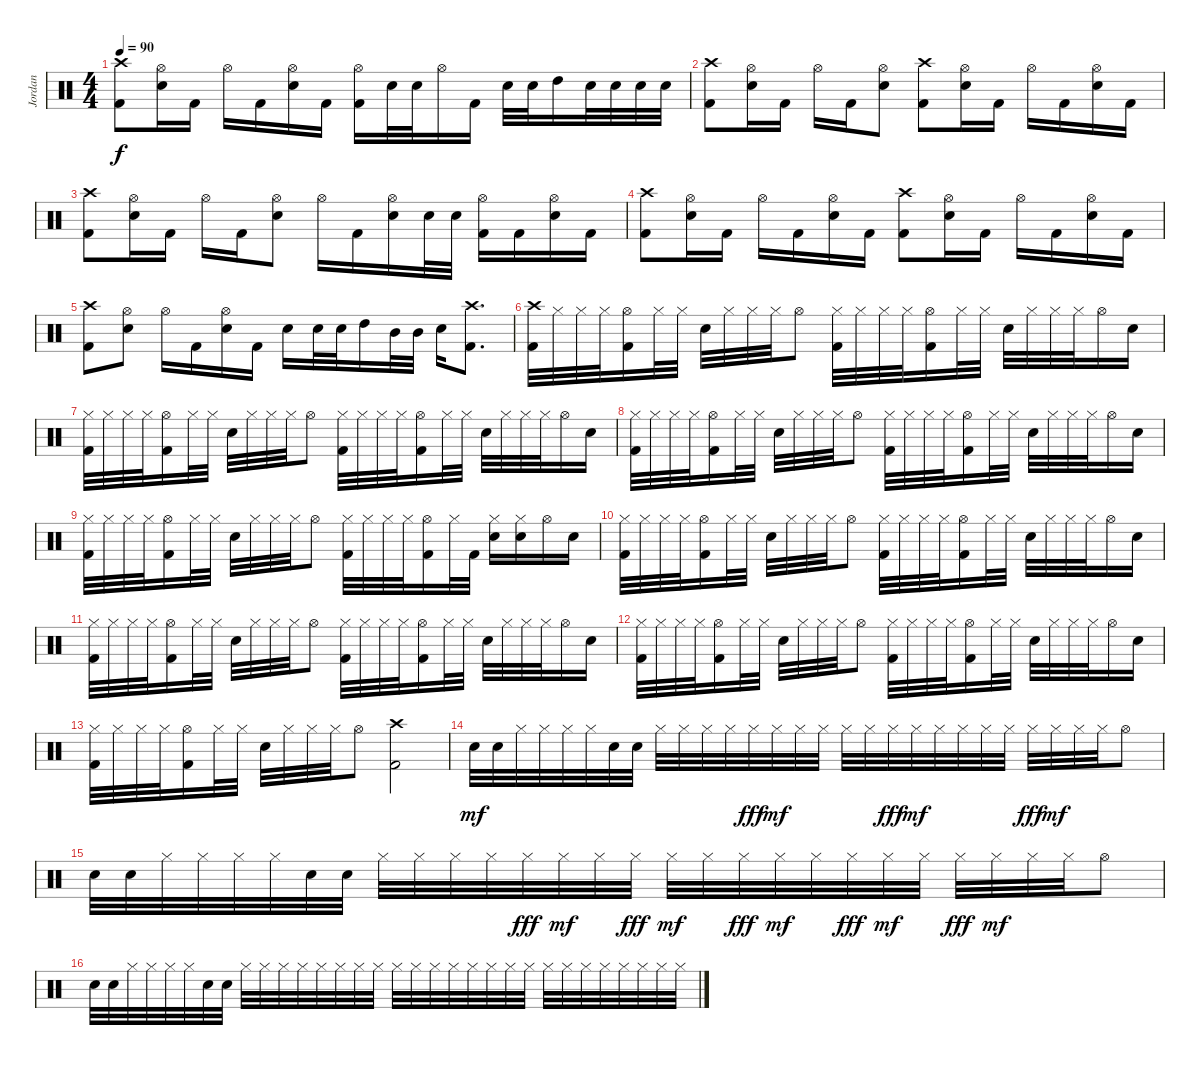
\track ("Jordan" "Jordan") {instrument percussion}
\staff {score}
\articulation defaults
\ts (4 4)
\tempo 90
\clef neutral
\ks c
("Crash high (hit)" "Kick (hit) 2").8{dy f} ("Hi-Hat (open)" "Snare (hit) 2").16 "Kick (hit) 2".16 "Hi-Hat (open)".16 "Kick (hit) 2".16 ("Hi-Hat (open)" "Snare (hit) 2").16 "Kick (hit) 2".16 ("Hi-Hat (open)" "Kick (hit) 2").16 "Snare (hit) 2".32 "Snare (hit) 2".32 "Hi-Hat (open)".16 "Kick (hit) 2".16 "Snare (hit) 2".32 "Snare (hit) 2".32 "High Tom (hit)".16 "Snare (hit) 2".32 "Snare (hit) 2".32 "Snare (hit) 2".32 "Snare (hit) 2".32 |
("Crash high (hit)" "Kick (hit) 2").8 ("Hi-Hat (open)" "Snare (hit) 2").16 "Kick (hit) 2".16 "Hi-Hat (open)".16 "Kick (hit) 2".16 ("Hi-Hat (open)" "Snare (hit) 2").8 ("Crash high (hit)" "Kick (hit) 2").8 ("Hi-Hat (open)" "Snare (hit) 2").16 "Kick (hit) 2".16 "Hi-Hat (open)".16 "Kick (hit) 2".16 ("Hi-Hat (open)" "Snare (hit) 2").16 "Kick (hit) 2".16 |
("Crash high (hit)" "Kick (hit) 2").8 ("Hi-Hat (open)" "Snare (hit) 2").16 "Kick (hit) 2".16 "Hi-Hat (open)".16 "Kick (hit) 2".16 ("Hi-Hat (open)" "Snare (hit) 2").8 "Hi-Hat (open)".16 "Kick (hit) 2".16 ("Hi-Hat (open)" "Snare (hit) 2").16 "Snare (hit) 2".32 "Snare (hit) 2".32 ("Hi-Hat (open)" "Kick (hit) 2").16 "Kick (hit) 2".16 ("Hi-Hat (open)" "Snare (hit) 2").16 "Kick (hit) 2".16 |
("Crash high (hit)" "Kick (hit) 2").8 ("Hi-Hat (open)" "Snare (hit) 2").16 "Kick (hit) 2".16 "Hi-Hat (open)".16 "Kick (hit) 2".16 ("Hi-Hat (open)" "Snare (hit) 2").16 "Kick (hit) 2".16 ("Crash high (hit)" "Kick (hit) 2").8 ("Hi-Hat (open)" "Snare (hit) 2").16 "Kick (hit) 2".16 "Hi-Hat (open)".16 "Kick (hit) 2".16 ("Hi-Hat (open)" "Snare (hit) 2").16 "Kick (hit) 2".16 |
("Crash high (hit)" "Kick (hit) 2").8 ("Hi-Hat (open)" "Snare (hit) 2").8 "Hi-Hat (open)".16 "Kick (hit) 2".16 ("Hi-Hat (open)" "Snare (hit) 2").16 "Kick (hit) 2".16 "Snare (hit) 2".16 "Snare (hit) 2".32 "Snare (hit) 2".32 "High Tom (hit)".16 "Mid Tom (hit)".32 "Mid Tom (hit)".32 "Snare (hit) 2".16 ("Crash high (hit)" "Kick (hit) 2").8{d} |
("Crash high (hit)" "Kick (hit) 2").32 "Hi-Hat (closed)".32 "Hi-Hat (closed)".32 "Hi-Hat (closed)".32 ("Hi-Hat (open)" "Kick (hit) 2").16 "Hi-Hat (closed)".32 "Hi-Hat (closed)".32 "Snare (hit) 2".32 "Hi-Hat (closed)".32 "Hi-Hat (closed)".32 "Hi-Hat (closed)".32 "Hi-Hat (open)".8 ("Hi-Hat (closed)" "Kick (hit) 2").32 "Hi-Hat (closed)".32 "Hi-Hat (closed)".32 "Hi-Hat (closed)".32 ("Hi-Hat (open)" "Kick (hit) 2").16 "Hi-Hat (closed)".32 "Hi-Hat (closed)".32 "Snare (hit) 2".32 "Hi-Hat (closed)".32 "Hi-Hat (closed)".32 "Hi-Hat (closed)".32 "Hi-Hat (open)".16 "Snare (hit) 2".16 |
("Hi-Hat (closed)" "Kick (hit) 2").32 "Hi-Hat (closed)".32 "Hi-Hat (closed)".32 "Hi-Hat (closed)".32 ("Hi-Hat (open)" "Kick (hit) 2").16 "Hi-Hat (closed)".32 "Hi-Hat (closed)".32 "Snare (hit) 2".32 "Hi-Hat (closed)".32 "Hi-Hat (closed)".32 "Hi-Hat (closed)".32 "Hi-Hat (open)".8 ("Hi-Hat (closed)" "Kick (hit) 2").32 "Hi-Hat (closed)".32 "Hi-Hat (closed)".32 "Hi-Hat (closed)".32 ("Hi-Hat (open)" "Kick (hit) 2").16 "Hi-Hat (closed)".32 "Hi-Hat (closed)".32 "Snare (hit) 2".32 "Hi-Hat (closed)".32 "Hi-Hat (closed)".32 "Hi-Hat (closed)".32 "Hi-Hat (open)".16 "Snare (hit) 2".16 |
("Hi-Hat (closed)" "Kick (hit) 2").32 "Hi-Hat (closed)".32 "Hi-Hat (closed)".32 "Hi-Hat (closed)".32 ("Hi-Hat (open)" "Kick (hit) 2").16 "Hi-Hat (closed)".32 "Hi-Hat (closed)".32 "Snare (hit) 2".32 "Hi-Hat (closed)".32 "Hi-Hat (closed)".32 "Hi-Hat (closed)".32 "Hi-Hat (open)".8 ("Hi-Hat (closed)" "Kick (hit) 2").32 "Hi-Hat (closed)".32 "Hi-Hat (closed)".32 "Hi-Hat (closed)".32 ("Hi-Hat (open)" "Kick (hit) 2").16 "Hi-Hat (closed)".32 "Hi-Hat (closed)".32 "Snare (hit) 2".32 "Hi-Hat (closed)".32 "Hi-Hat (closed)".32 "Hi-Hat (closed)".32 "Hi-Hat (open)".16 "Snare (hit) 2".16 |
("Hi-Hat (closed)" "Kick (hit) 2").32 "Hi-Hat (closed)".32 "Hi-Hat (closed)".32 "Hi-Hat (closed)".32 ("Hi-Hat (open)" "Kick (hit) 2").16 "Hi-Hat (closed)".32 "Hi-Hat (closed)".32 "Snare (hit) 2".32 "Hi-Hat (closed)".32 "Hi-Hat (closed)".32 "Hi-Hat (closed)".32 "Hi-Hat (open)".8 ("Hi-Hat (closed)" "Kick (hit) 2").32 "Hi-Hat (closed)".32 "Hi-Hat (closed)".32 "Hi-Hat (closed)".32 ("Hi-Hat (open)" "Kick (hit) 2").16 "Hi-Hat (closed)".32 "Kick (hit) 2".32 ("Hi-Hat (closed)" "Snare (hit) 2").16 ("Hi-Hat (closed)" "Snare (hit) 2").16 "Hi-Hat (open)".16 "Snare (hit) 2".16 |
("Hi-Hat (closed)" "Kick (hit) 2").32 "Hi-Hat (closed)".32 "Hi-Hat (closed)".32 "Hi-Hat (closed)".32 ("Hi-Hat (open)" "Kick (hit) 2").16 "Hi-Hat (closed)".32 "Hi-Hat (closed)".32 "Snare (hit) 2".32 "Hi-Hat (closed)".32 "Hi-Hat (closed)".32 "Hi-Hat (closed)".32 "Hi-Hat (open)".8 ("Hi-Hat (closed)" "Kick (hit) 2").32 "Hi-Hat (closed)".32 "Hi-Hat (closed)".32 "Hi-Hat (closed)".32 ("Hi-Hat (open)" "Kick (hit) 2").16 "Hi-Hat (closed)".32 "Hi-Hat (closed)".32 "Snare (hit) 2".32 "Hi-Hat (closed)".32 "Hi-Hat (closed)".32 "Hi-Hat (closed)".32 "Hi-Hat (open)".16 "Snare (hit) 2".16 |
("Hi-Hat (closed)" "Kick (hit) 2").32 "Hi-Hat (closed)".32 "Hi-Hat (closed)".32 "Hi-Hat (closed)".32 ("Hi-Hat (open)" "Kick (hit) 2").16 "Hi-Hat (closed)".32 "Hi-Hat (closed)".32 "Snare (hit) 2".32 "Hi-Hat (closed)".32 "Hi-Hat (closed)".32 "Hi-Hat (closed)".32 "Hi-Hat (open)".8 ("Hi-Hat (closed)" "Kick (hit) 2").32 "Hi-Hat (closed)".32 "Hi-Hat (closed)".32 "Hi-Hat (closed)".32 ("Hi-Hat (open)" "Kick (hit) 2").16 "Hi-Hat (closed)".32 "Hi-Hat (closed)".32 "Snare (hit) 2".32 "Hi-Hat (closed)".32 "Hi-Hat (closed)".32 "Hi-Hat (closed)".32 "Hi-Hat (open)".16 "Snare (hit) 2".16 |
("Hi-Hat (closed)" "Kick (hit) 2").32 "Hi-Hat (closed)".32 "Hi-Hat (closed)".32 "Hi-Hat (closed)".32 ("Hi-Hat (open)" "Kick (hit) 2").16 "Hi-Hat (closed)".32 "Hi-Hat (closed)".32 "Snare (hit) 2".32 "Hi-Hat (closed)".32 "Hi-Hat (closed)".32 "Hi-Hat (closed)".32 "Hi-Hat (open)".8 ("Hi-Hat (closed)" "Kick (hit) 2").32 "Hi-Hat (closed)".32 "Hi-Hat (closed)".32 "Hi-Hat (closed)".32 ("Hi-Hat (open)" "Kick (hit) 2").16 "Hi-Hat (closed)".32 "Hi-Hat (closed)".32 "Snare (hit) 2".32 "Hi-Hat (closed)".32 "Hi-Hat (closed)".32 "Hi-Hat (closed)".32 "Hi-Hat (open)".16 "Snare (hit) 2".16 |
("Hi-Hat (closed)" "Kick (hit) 2").32 "Hi-Hat (closed)".32 "Hi-Hat (closed)".32 "Hi-Hat (closed)".32 ("Hi-Hat (open)" "Kick (hit) 2").16 "Hi-Hat (closed)".32 "Hi-Hat (closed)".32 "Snare (hit) 2".32 "Hi-Hat (closed)".32 "Hi-Hat (closed)".32 "Hi-Hat (closed)".32 "Hi-Hat (open)".8 ("Crash high (hit)" "Kick (hit) 2").2 |
"Snare (hit) 2".32{dy mf} "Snare (hit) 2".32 "Hi-Hat (closed)".32 "Hi-Hat (closed)".32 "Hi-Hat (closed)".32 "Hi-Hat (closed)".32 "Snare (hit) 2".32 "Snare (hit) 2".32 "Hi-Hat (closed)".32 "Hi-Hat (closed)".32 "Hi-Hat (closed)".32 "Hi-Hat (closed)".32 "Hi-Hat (closed)".32{dy fff} "Hi-Hat (closed)".32{dy mf} "Hi-Hat (closed)".32 "Hi-Hat (closed)".32 "Hi-Hat (closed)".32 "Hi-Hat (closed)".32 "Hi-Hat (closed)".32{dy fff} "Hi-Hat (closed)".32{dy mf} "Hi-Hat (closed)".32 "Hi-Hat (closed)".32 "Hi-Hat (closed)".32 "Hi-Hat (closed)".32 "Hi-Hat (closed)".32{dy fff} "Hi-Hat (closed)".32{dy mf} "Hi-Hat (closed)".32 "Hi-Hat (closed)".32 "Hi-Hat (open)".8 |
"Snare (hit) 2".32 "Snare (hit) 2".32 "Hi-Hat (closed)".32 "Hi-Hat (closed)".32 "Hi-Hat (closed)".32 "Hi-Hat (closed)".32 "Snare (hit) 2".32 "Snare (hit) 2".32 "Hi-Hat (closed)".32 "Hi-Hat (closed)".32 "Hi-Hat (closed)".32 "Hi-Hat (closed)".32 "Hi-Hat (closed)".32{dy fff} "Hi-Hat (closed)".32{dy mf} "Hi-Hat (closed)".32 "Hi-Hat (closed)".32{dy fff} "Hi-Hat (closed)".32{dy mf} "Hi-Hat (closed)".32 "Hi-Hat (closed)".32{dy fff} "Hi-Hat (closed)".32{dy mf} "Hi-Hat (closed)".32 "Hi-Hat (closed)".32{dy fff} "Hi-Hat (closed)".32{dy mf} "Hi-Hat (closed)".32 "Hi-Hat (closed)".32{dy fff} "Hi-Hat (closed)".32{dy mf} "Hi-Hat (closed)".32 "Hi-Hat (closed)".32 "Hi-Hat (open)".8 |
"Snare (hit) 2".32 "Snare (hit) 2".32 "Hi-Hat (closed)".32 "Hi-Hat (closed)".32 "Hi-Hat (closed)".32 "Hi-Hat (closed)".32 "Snare (hit) 2".32 "Snare (hit) 2".32 "Hi-Hat (closed)".32 "Hi-Hat (closed)".32 "Hi-Hat (closed)".32 "Hi-Hat (closed)".32 "Hi-Hat (closed)".32 "Hi-Hat (closed)".32 "Hi-Hat (closed)".32 "Hi-Hat (closed)".32 "Hi-Hat (closed)".32 "Hi-Hat (closed)".32 "Hi-Hat (closed)".32 "Hi-Hat (closed)".32 "Hi-Hat (closed)".32 "Hi-Hat (closed)".32 "Hi-Hat (closed)".32 "Hi-Hat (closed)".32 "Hi-Hat (closed)".32 "Hi-Hat (closed)".32 "Hi-Hat (closed)".32 "Hi-Hat (closed)".32 "Hi-Hat (closed)".32 "Hi-Hat (closed)".32 "Hi-Hat (closed)".32 "Hi-Hat (closed)".32
